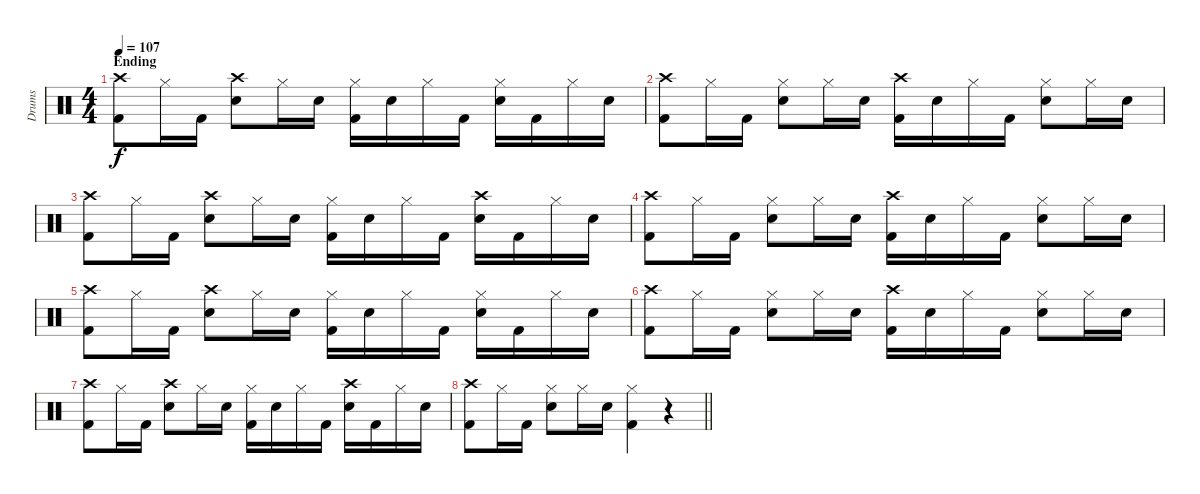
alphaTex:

\track ("Drums " "Drums ") {instrument percussion}
\staff {score}
\articulation defaults
\ts (4 4)
\section ("" "Ending")
\tempo 107
\clef neutral
\ks c
("Crash high (hit)" "Kick (hit) 2").8{dy f} "Hi-Hat (closed)".16 "Kick (hit) 2".16 ("Crash high (hit)" "Electric Snare (hit)").8 "Hi-Hat (closed)".16 "Electric Snare (hit)".16 ("Hi-Hat (closed)" "Kick (hit) 2").16 "Electric Snare (hit)".16 "Hi-Hat (closed)".16 "Kick (hit) 2".16 ("Hi-Hat (closed)" "Electric Snare (hit)").16 "Kick (hit) 2".16 "Hi-Hat (closed)".16 "Electric Snare (hit)".16 |
("Crash high (hit)" "Kick (hit) 2").8 "Hi-Hat (closed)".16 "Kick (hit) 2".16 ("Hi-Hat (closed)" "Electric Snare (hit)").8 "Hi-Hat (closed)".16 "Electric Snare (hit)".16 ("Crash high (hit)" "Kick (hit) 2").16 "Electric Snare (hit)".16 "Hi-Hat (closed)".16 "Kick (hit) 2".16 ("Hi-Hat (closed)" "Electric Snare (hit)").8 "Hi-Hat (closed)".16 "Electric Snare (hit)".16 |
("Crash high (hit)" "Kick (hit) 2").8 "Hi-Hat (closed)".16 "Kick (hit) 2".16 ("Crash high (hit)" "Electric Snare (hit)").8 "Hi-Hat (closed)".16 "Electric Snare (hit)".16 ("Hi-Hat (closed)" "Kick (hit) 2").16 "Electric Snare (hit)".16 "Hi-Hat (closed)".16 "Kick (hit) 2".16 ("Crash high (hit)" "Electric Snare (hit)").16 "Kick (hit) 2".16 "Hi-Hat (closed)".16 "Electric Snare (hit)".16 |
("Crash high (hit)" "Kick (hit) 2").8 "Hi-Hat (closed)".16 "Kick (hit) 2".16 ("Hi-Hat (closed)" "Electric Snare (hit)").8 "Hi-Hat (closed)".16 "Electric Snare (hit)".16 ("Crash high (hit)" "Kick (hit) 2").16 "Electric Snare (hit)".16 "Hi-Hat (closed)".16 "Kick (hit) 2".16 ("Hi-Hat (closed)" "Electric Snare (hit)").8 "Hi-Hat (closed)".16 "Electric Snare (hit)".16 |
("Crash high (hit)" "Kick (hit) 2").8 "Hi-Hat (closed)".16 "Kick (hit) 2".16 ("Crash high (hit)" "Electric Snare (hit)").8 "Hi-Hat (closed)".16 "Electric Snare (hit)".16 ("Hi-Hat (closed)" "Kick (hit) 2").16 "Electric Snare (hit)".16 "Hi-Hat (closed)".16 "Kick (hit) 2".16 ("Hi-Hat (closed)" "Electric Snare (hit)").16 "Kick (hit) 2".16 "Hi-Hat (closed)".16 "Electric Snare (hit)".16 |
("Crash high (hit)" "Kick (hit) 2").8 "Hi-Hat (closed)".16 "Kick (hit) 2".16 ("Hi-Hat (closed)" "Electric Snare (hit)").8 "Hi-Hat (closed)".16 "Electric Snare (hit)".16 ("Crash high (hit)" "Kick (hit) 2").16 "Electric Snare (hit)".16 "Hi-Hat (closed)".16 "Kick (hit) 2".16 ("Hi-Hat (closed)" "Electric Snare (hit)").8 "Hi-Hat (closed)".16 "Electric Snare (hit)".16 |
("Crash high (hit)" "Kick (hit) 2").8 "Hi-Hat (closed)".16 "Kick (hit) 2".16 ("Crash high (hit)" "Electric Snare (hit)").8 "Hi-Hat (closed)".16 "Electric Snare (hit)".16 ("Hi-Hat (closed)" "Kick (hit) 2").16 "Electric Snare (hit)".16 "Hi-Hat (closed)".16 "Kick (hit) 2".16 ("Crash high (hit)" "Electric Snare (hit)").16 "Kick (hit) 2".16 "Hi-Hat (closed)".16 "Electric Snare (hit)".16 |
\barLineRight lightlight
("Crash high (hit)" "Kick (hit) 2").8 "Hi-Hat (closed)".16 "Kick (hit) 2".16 ("Hi-Hat (closed)" "Electric Snare (hit)").8 "Hi-Hat (closed)".16 "Electric Snare (hit)".16 ("Hi-Hat (closed)" "Kick (hit) 2").4 r.4
